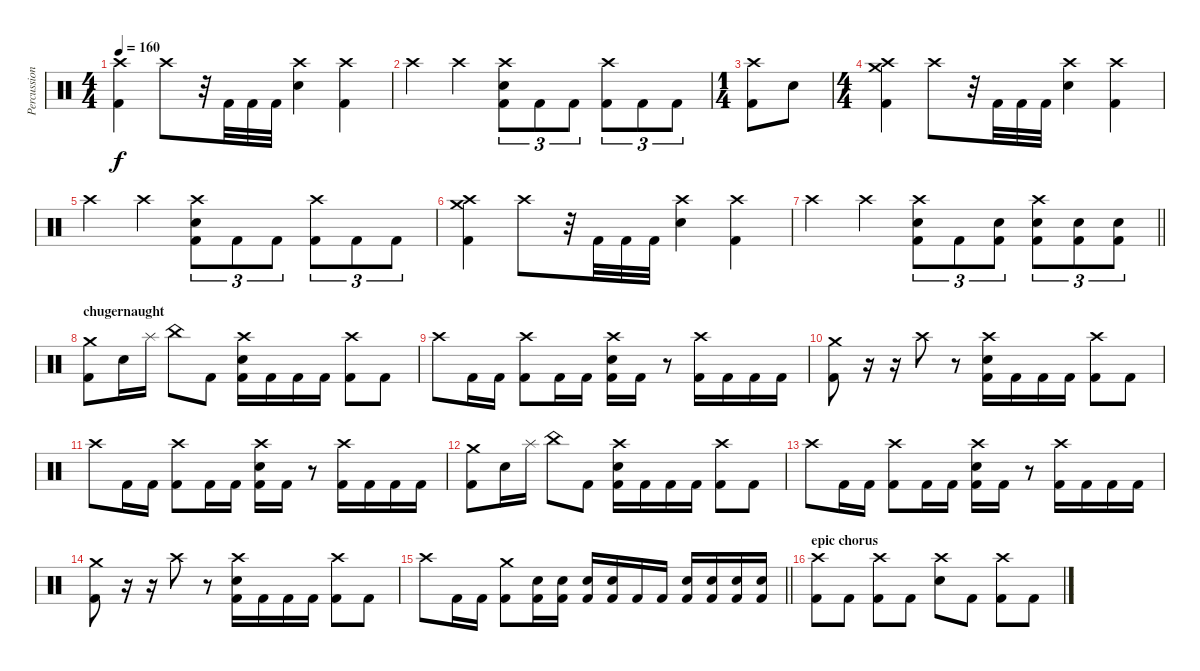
\track ("Percussion" "Percussion") {instrument percussion bank 255}
\staff {score}
\articulation defaults
\ts (4 4)
\tempo 160
\clef neutral
\ks c
("Crash high (hit)" "Kick (hit) 2").4{dy f} "Crash high (hit)".8 r.32 "Kick (hit) 2".32 "Kick (hit) 2".32 "Kick (hit) 2".32 ("Crash high (hit)" "Electric Snare (hit)").4 ("Crash high (hit)" "Kick (hit) 2").4 |
"Crash high (hit)".4 "Crash high (hit)".4 ("Crash high (hit)" "Electric Snare (hit)" "Kick (hit) 2").8{tu (3 2)} "Kick (hit) 2".8{tu (3 2)} "Kick (hit) 2".8{tu (3 2)} ("Crash high (hit)" "Kick (hit) 2").8{tu (3 2)} "Kick (hit) 2".8{tu (3 2)} "Kick (hit) 2".8{tu (3 2)} |
\ts (1 4)
("Crash high (hit)" "Kick (hit) 2").8 "Electric Snare (hit)".8 |
\ts (4 4)
("Crash high (hit)" "Crash medium (hit)" "Kick (hit) 2").4 "Crash high (hit)".8 r.32 "Kick (hit) 2".32 "Kick (hit) 2".32 "Kick (hit) 2".32 ("Crash high (hit)" "Electric Snare (hit)").4 ("Crash high (hit)" "Kick (hit) 2").4 |
"Crash high (hit)".4 "Crash high (hit)".4 ("Crash high (hit)" "Electric Snare (hit)" "Kick (hit) 2").8{tu (3 2)} "Kick (hit) 2".8{tu (3 2)} "Kick (hit) 2".8{tu (3 2)} ("Crash high (hit)" "Kick (hit) 2").8{tu (3 2)} "Kick (hit) 2".8{tu (3 2)} "Kick (hit) 2".8{tu (3 2)} |
("Crash high (hit)" "Crash medium (hit)" "Kick (hit) 2").4 "Crash high (hit)".8 r.32 "Kick (hit) 2".32 "Kick (hit) 2".32 "Kick (hit) 2".32 ("Crash high (hit)" "Electric Snare (hit)").4 ("Crash high (hit)" "Kick (hit) 2").4 |
\barLineRight lightlight "Crash high (hit)".4 "Crash high (hit)".4
("Crash high (hit)" "Electric Snare (hit)" "Kick (hit) 2").8{tu (3 2)} "Kick (hit) 2".8{tu (3 2)} ("Electric Snare (hit)" "Kick (hit) 2").8{tu (3 2)} ("Crash high (hit)" "Electric Snare (hit)" "Kick (hit) 2").8{tu (3 2)} ("Electric Snare (hit)" "Kick (hit) 2").8{tu (3 2)} ("Electric Snare (hit)" "Kick (hit) 2").8{tu (3 2)} |
\section ("" "chugernaught")
("Crash medium (hit)" "Kick (hit) 2").8 "Electric Snare (hit)".16 "Splash (hit)".16 "China (hit)".8 "Kick (hit) 2".8 ("Crash high (hit)" "Electric Snare (hit)" "Kick (hit) 2").16 "Kick (hit) 2".16 "Kick (hit) 2".16 "Kick (hit) 2".16 ("Crash high (hit)" "Kick (hit) 2").8 "Kick (hit) 2".8 |
"Crash high (hit)".8 "Kick (hit) 2".16 "Kick (hit) 2".16 ("Crash high (hit)" "Kick (hit) 2").8 "Kick (hit) 2".16 "Kick (hit) 2".16 ("Crash high (hit)" "Electric Snare (hit)" "Kick (hit) 2").16 "Kick (hit) 2".16 r.8 ("Crash high (hit)" "Kick (hit) 2").16 "Kick (hit) 2".16 "Kick (hit) 2".16 "Kick (hit) 2".16 |
("Crash medium (hit)" "Kick (hit) 2").8 r.16 r.16 "Crash high (hit)".8 r.8 ("Crash high (hit)" "Electric Snare (hit)" "Kick (hit) 2").16 "Kick (hit) 2".16 "Kick (hit) 2".16 "Kick (hit) 2".16 ("Crash high (hit)" "Kick (hit) 2").8 "Kick (hit) 2".8 |
"Crash high (hit)".8 "Kick (hit) 2".16 "Kick (hit) 2".16 ("Crash high (hit)" "Kick (hit) 2").8 "Kick (hit) 2".16 "Kick (hit) 2".16 ("Crash high (hit)" "Electric Snare (hit)" "Kick (hit) 2").16 "Kick (hit) 2".16 r.8 ("Crash high (hit)" "Kick (hit) 2").16 "Kick (hit) 2".16 "Kick (hit) 2".16 "Kick (hit) 2".16 |
("Crash medium (hit)" "Kick (hit) 2").8 "Electric Snare (hit)".16 "Splash (hit)".16 "China (hit)".8 "Kick (hit) 2".8 ("Crash high (hit)" "Electric Snare (hit)" "Kick (hit) 2").16 "Kick (hit) 2".16 "Kick (hit) 2".16 "Kick (hit) 2".16 ("Crash high (hit)" "Kick (hit) 2").8 "Kick (hit) 2".8 |
"Crash high (hit)".8 "Kick (hit) 2".16 "Kick (hit) 2".16 ("Crash high (hit)" "Kick (hit) 2").8 "Kick (hit) 2".16 "Kick (hit) 2".16 ("Crash high (hit)" "Electric Snare (hit)" "Kick (hit) 2").16 "Kick (hit) 2".16 r.8 ("Crash high (hit)" "Kick (hit) 2").16 "Kick (hit) 2".16 "Kick (hit) 2".16 "Kick (hit) 2".16 |
("Crash medium (hit)" "Kick (hit) 2").8 r.16 r.16 "Crash high (hit)".8 r.8 ("Crash high (hit)" "Electric Snare (hit)" "Kick (hit) 2").16 "Kick (hit) 2".16 "Kick (hit) 2".16 "Kick (hit) 2".16 ("Crash high (hit)" "Kick (hit) 2").8 "Kick (hit) 2".8 |
\barLineRight lightlight "Crash high (hit)".8 "Kick (hit) 2".16 "Kick (hit) 2".16
("Crash medium (hit)" "Kick (hit) 2").8 ("Electric Snare (hit)" "Kick (hit) 2").16 ("Electric Snare (hit)" "Kick (hit) 2").16 ("Electric Snare (hit)" "Kick (hit) 2").16 ("Electric Snare (hit)" "Kick (hit) 2").16 "Kick (hit) 2".16 "Kick (hit) 2".16 ("Electric Snare (hit)" "Kick (hit) 2").16 ("Electric Snare (hit)" "Kick (hit) 2").16 ("Electric Snare (hit)" "Kick (hit) 2").16 ("Electric Snare (hit)" "Kick (hit) 2").16 |
\section ("" "epic chorus")
("Crash high (hit)" "Kick (hit) 2").8 "Kick (hit) 2".8 ("Crash high (hit)" "Kick (hit) 2").8 "Kick (hit) 2".8 ("Crash high (hit)" "Electric Snare (hit)").8 "Kick (hit) 2".8 ("Crash high (hit)" "Kick (hit) 2").8 "Kick (hit) 2".8
